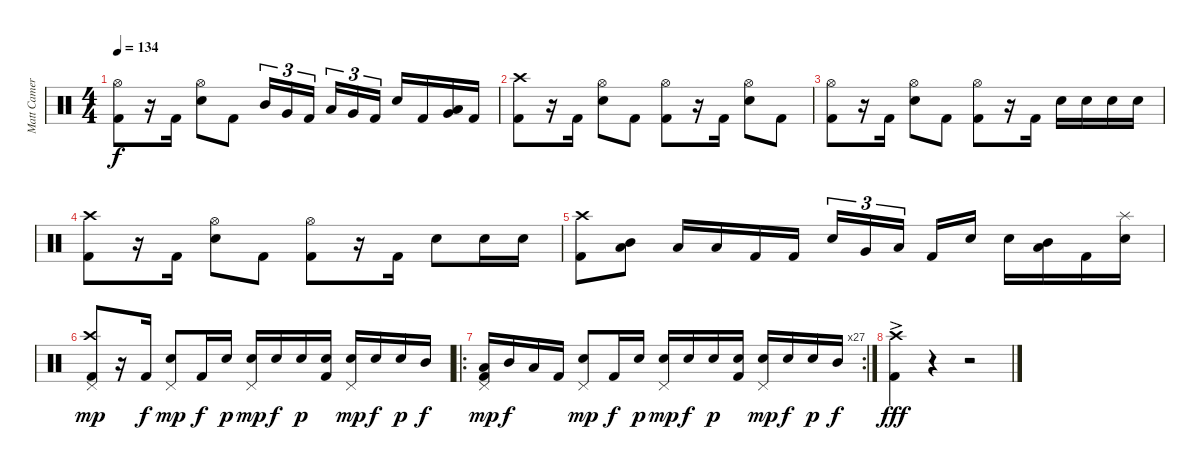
\track ("Matt Cameron" "Matt Camer") {instrument percussion}
\staff {score}
\articulation defaults
\ts (4 4)
\tempo 134
\clef neutral
\ks c
("Hi-Hat (open)" "Kick (hit) 2").8{dy f} r.16 "Kick (hit) 2".16 ("Hi-Hat (open)" "Electric Snare (hit)").8 "Kick (hit) 2".8 "Mid Tom (hit)".16{tu (3 2)} "Very Low Tom (hit)".16{tu (3 2)} "Kick (hit) 2".16{tu (3 2)} "Low Tom (hit)".16{tu (3 2)} "Very Low Tom (hit)".16{tu (3 2)} "Kick (hit) 2".16{tu (3 2)} "Electric Snare (hit)".16 "Kick (hit) 2".16 ("Very Low Tom (hit)" "Low Floor Tom (hit)").16 "Kick (hit) 2".16 |
("Crash high (hit)" "Kick (hit) 2").8 r.16 "Kick (hit) 2".16 ("Hi-Hat (open)" "Electric Snare (hit)").8 "Kick (hit) 2".8 ("Hi-Hat (open)" "Kick (hit) 2").8 r.16 "Kick (hit) 2".16 ("Hi-Hat (open)" "Electric Snare (hit)").8 "Kick (hit) 2".8 |
("Hi-Hat (open)" "Kick (hit) 2").8 r.16 "Kick (hit) 2".16 ("Hi-Hat (open)" "Electric Snare (hit)").8 "Kick (hit) 2".8 ("Hi-Hat (open)" "Kick (hit) 2").8 r.16 "Kick (hit) 2".16 "Electric Snare (hit)".16 "Electric Snare (hit)".16 "Electric Snare (hit)".16 "Electric Snare (hit)".16 |
("Crash high (hit)" "Kick (hit) 2").8 r.16 "Kick (hit) 2".16 ("Hi-Hat (open)" "Electric Snare (hit)").8 "Kick (hit) 2".8 ("Hi-Hat (open)" "Kick (hit) 2").8 r.16 "Kick (hit) 2".16 "Electric Snare (hit)".8 "Electric Snare (hit)".16 "Electric Snare (hit)".16 |
("Crash high (hit)" "Kick (hit) 2").8 ("Mid Tom (hit)" "Low Tom (hit)").8 "Low Tom (hit)".16 "Low Tom (hit)".16 "Kick (hit) 2".16 "Kick (hit) 2".16 "Electric Snare (hit)".16{tu (3 2)} "Very Low Tom (hit)".16{tu (3 2)} "Low Floor Tom (hit)".16{tu (3 2)} "Kick (hit) 2".16 "Electric Snare (hit)".16 "Electric Snare (hit)".16 ("Mid Tom (hit)" "Low Tom (hit)").16 "Kick (hit) 2".16 ("Splash (hit)" "Electric Snare (hit)").16 |
("Crash high (hit)" "Pedal Hi-Hat (hit)" "Kick (hit) 2").8{dy mp} r.16 "Kick (hit) 2".16{dy f} ("Electric Snare (hit)" "Pedal Hi-Hat (hit)").8{dy mp} "Kick (hit) 2".16{dy f} "Electric Snare (hit)".16{dy p} ("Electric Snare (hit)" "Pedal Hi-Hat (hit)").16{dy mp} "Electric Snare (hit)".16{dy f} "Electric Snare (hit)".16{dy p} ("Electric Snare (hit)" "Kick (hit) 2").16 ("Electric Snare (hit)" "Pedal Hi-Hat (hit)").16{dy mp} "Electric Snare (hit)".16{dy f} "Electric Snare (hit)".16{dy p} "Mid Tom (hit)".16{dy f} |
\ro
\rc 27
("Low Tom (hit)" "Pedal Hi-Hat (hit)" "Kick (hit) 2").16{dy mp} "Mid Tom (hit)".16{dy f} "Low Tom (hit)".16 "Kick (hit) 2".16 ("Electric Snare (hit)" "Pedal Hi-Hat (hit)").8{dy mp} "Kick (hit) 2".16{dy f} "Electric Snare (hit)".16{dy p} ("Electric Snare (hit)" "Pedal Hi-Hat (hit)").16{dy mp} "Electric Snare (hit)".16{dy f} "Electric Snare (hit)".16{dy p} ("Electric Snare (hit)" "Kick (hit) 2").16 ("Electric Snare (hit)" "Pedal Hi-Hat (hit)").16{dy mp} "Electric Snare (hit)".16{dy f} "Electric Snare (hit)".16{dy p} "Mid Tom (hit)".16{dy f} |
("Crash high (hit)"{ac} "Kick (hit) 2").4{dy fff} r.4 r.2
